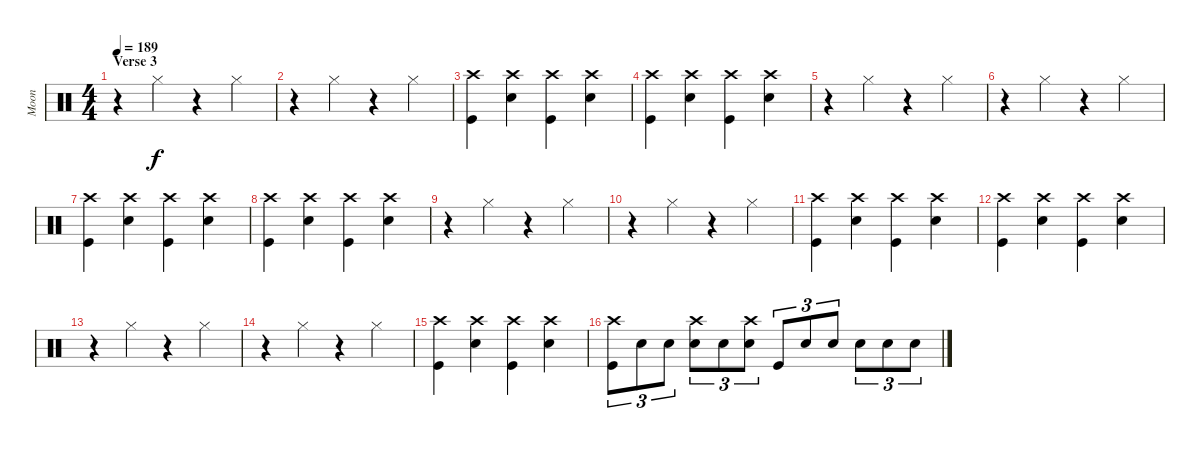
\track ("Moon" "Moon") {instrument percussion}
\staff {score}
\articulation defaults
\ts (4 4)
\section ("" "Verse 3")
\tempo 189
\clef neutral
\ks c
r.4{dy f} "Hi-Hat (closed)".4 r.4 "Hi-Hat (closed)".4 |
r.4 "Hi-Hat (closed)".4 r.4 "Hi-Hat (closed)".4 |
("Crash high (hit)" "Kick (hit)").4 ("Crash high (hit)" "Snare (hit) 2").4 ("Crash high (hit)" "Kick (hit)").4 ("Crash high (hit)" "Snare (hit) 2").4 |
("Crash high (hit)" "Kick (hit)").4 ("Crash high (hit)" "Snare (hit) 2").4 ("Crash high (hit)" "Kick (hit)").4 ("Crash high (hit)" "Snare (hit) 2").4 |
r.4 "Hi-Hat (closed)".4 r.4 "Hi-Hat (closed)".4 |
r.4 "Hi-Hat (closed)".4 r.4 "Hi-Hat (closed)".4 |
("Crash high (hit)" "Kick (hit)").4 ("Crash high (hit)" "Snare (hit) 2").4 ("Crash high (hit)" "Kick (hit)").4 ("Crash high (hit)" "Snare (hit) 2").4 |
("Crash high (hit)" "Kick (hit)").4 ("Crash high (hit)" "Snare (hit) 2").4 ("Crash high (hit)" "Kick (hit)").4 ("Crash high (hit)" "Snare (hit) 2").4 |
r.4 "Hi-Hat (closed)".4 r.4 "Hi-Hat (closed)".4 |
r.4 "Hi-Hat (closed)".4 r.4 "Hi-Hat (closed)".4 |
("Crash high (hit)" "Kick (hit)").4 ("Crash high (hit)" "Snare (hit) 2").4 ("Crash high (hit)" "Kick (hit)").4 ("Crash high (hit)" "Snare (hit) 2").4 |
("Crash high (hit)" "Kick (hit)").4 ("Crash high (hit)" "Snare (hit) 2").4 ("Crash high (hit)" "Kick (hit)").4 ("Crash high (hit)" "Snare (hit) 2").4 |
r.4 "Hi-Hat (closed)".4 r.4 "Hi-Hat (closed)".4 |
r.4 "Hi-Hat (closed)".4 r.4 "Hi-Hat (closed)".4 |
("Crash high (hit)" "Kick (hit)").4 ("Crash high (hit)" "Snare (hit) 2").4 ("Crash high (hit)" "Kick (hit)").4 ("Crash high (hit)" "Snare (hit) 2").4 |
("Crash high (hit)" "Kick (hit)").8{tu (3 2)} "Snare (hit) 2".8{tu (3 2)} "Snare (hit) 2".8{tu (3 2)} ("Crash high (hit)" "Snare (hit) 2").8{tu (3 2)} "Snare (hit) 2".8{tu (3 2)} ("Crash high (hit)" "Snare (hit) 2").8{tu (3 2)} "Kick (hit)".8{tu (3 2)} "Snare (hit) 2".8{tu (3 2)} "Snare (hit) 2".8{tu (3 2)} "Snare (hit) 2".8{tu (3 2)} "Snare (hit) 2".8{tu (3 2)} "Snare (hit) 2".8{tu (3 2)}
